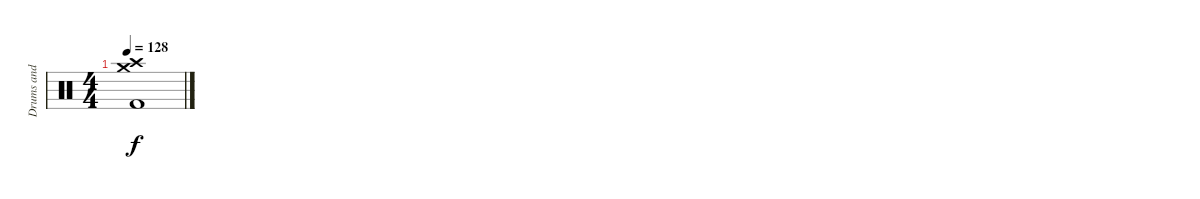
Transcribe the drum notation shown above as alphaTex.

\track ("Drums and Percussion" "Drums and ") {instrument percussion}
\staff {score}
\articulation defaults
\ts (4 4)
\tempo 128
\clef neutral
\ks c
("Crash medium (hit)" "Crash high (hit)" "Kick (hit) 2").1{dy f}
